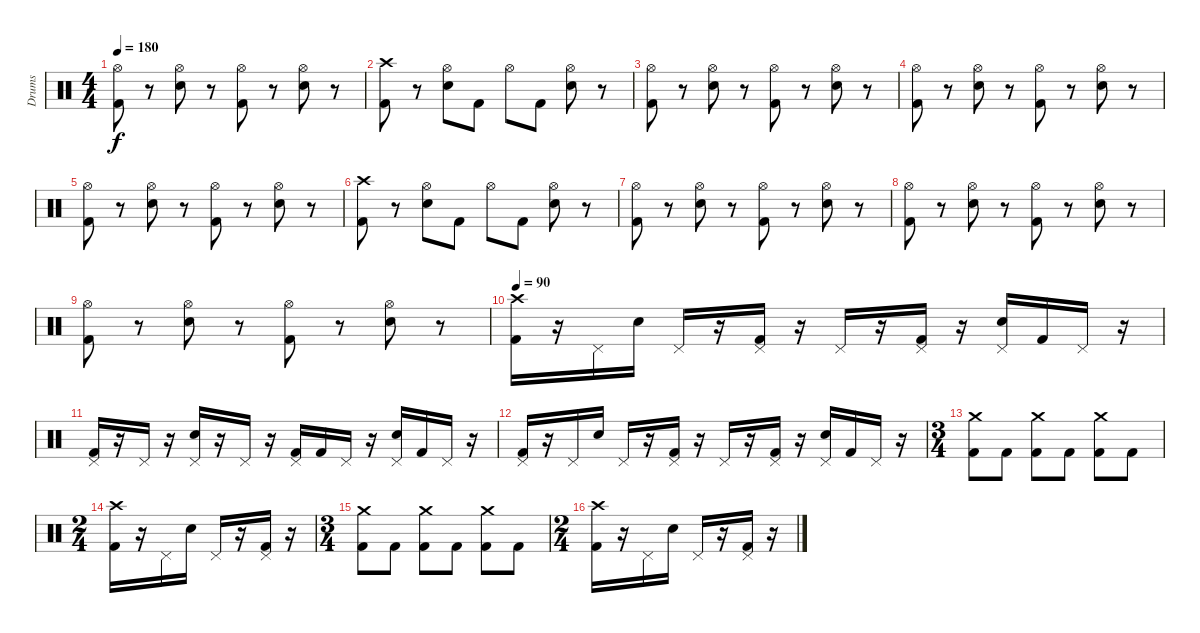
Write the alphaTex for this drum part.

\track ("Drums" "Drums") {instrument percussion}
\staff {score}
\articulation defaults
\ts (4 4)
\tempo 180
\clef neutral
\ks c
("Hi-Hat (open)" "Kick (hit) 2").8{dy f} r.8 ("Hi-Hat (open)" "Snare (hit) 2").8 r.8 ("Hi-Hat (open)" "Kick (hit) 2").8 r.8 ("Hi-Hat (open)" "Snare (hit) 2").8 r.8 |
("Crash high (hit)" "Kick (hit) 2").8 r.8 ("Hi-Hat (open)" "Snare (hit) 2").8 "Kick (hit) 2".8 "Hi-Hat (open)".8 "Kick (hit) 2".8 ("Hi-Hat (open)" "Snare (hit) 2").8 r.8 |
("Hi-Hat (open)" "Kick (hit) 2").8 r.8 ("Hi-Hat (open)" "Snare (hit) 2").8 r.8 ("Hi-Hat (open)" "Kick (hit) 2").8 r.8 ("Hi-Hat (open)" "Snare (hit) 2").8 r.8 |
("Hi-Hat (open)" "Kick (hit) 2").8 r.8 ("Hi-Hat (open)" "Snare (hit) 2").8 r.8 ("Hi-Hat (open)" "Kick (hit) 2").8 r.8 ("Hi-Hat (open)" "Snare (hit) 2").8 r.8 |
("Hi-Hat (open)" "Kick (hit) 2").8 r.8 ("Hi-Hat (open)" "Snare (hit) 2").8 r.8 ("Hi-Hat (open)" "Kick (hit) 2").8 r.8 ("Hi-Hat (open)" "Snare (hit) 2").8 r.8 |
("Crash high (hit)" "Kick (hit) 2").8 r.8 ("Hi-Hat (open)" "Snare (hit) 2").8 "Kick (hit) 2".8 "Hi-Hat (open)".8 "Kick (hit) 2".8 ("Hi-Hat (open)" "Snare (hit) 2").8 r.8 |
("Hi-Hat (open)" "Kick (hit) 2").8 r.8 ("Hi-Hat (open)" "Snare (hit) 2").8 r.8 ("Hi-Hat (open)" "Kick (hit) 2").8 r.8 ("Hi-Hat (open)" "Snare (hit) 2").8 r.8 |
("Hi-Hat (open)" "Kick (hit) 2").8 r.8 ("Hi-Hat (open)" "Snare (hit) 2").8 r.8 ("Hi-Hat (open)" "Kick (hit) 2").8 r.8 ("Hi-Hat (open)" "Snare (hit) 2").8 r.8 |
("Hi-Hat (open)" "Kick (hit) 2").8 r.8 ("Hi-Hat (open)" "Snare (hit) 2").8 r.8 ("Hi-Hat (open)" "Kick (hit) 2").8 r.8 ("Hi-Hat (open)" "Snare (hit) 2").8 r.8 |
\tempo 90
("Crash high (hit)" "Kick (hit) 2").16 r.16 "Pedal Hi-Hat (hit)".16 "Snare (hit) 2".16 "Pedal Hi-Hat (hit)".16 r.16 ("Pedal Hi-Hat (hit)" "Kick (hit) 2").16 r.16 "Pedal Hi-Hat (hit)".16 r.16 ("Pedal Hi-Hat (hit)" "Kick (hit) 2").16 r.16 ("Pedal Hi-Hat (hit)" "Snare (hit) 2").16 "Kick (hit) 2".16 "Pedal Hi-Hat (hit)".16 r.16 |
("Pedal Hi-Hat (hit)" "Kick (hit) 2").16 r.16 "Pedal Hi-Hat (hit)".16 r.16 ("Pedal Hi-Hat (hit)" "Snare (hit) 2").16 r.16 "Pedal Hi-Hat (hit)".16 r.16 ("Pedal Hi-Hat (hit)" "Kick (hit) 2").16 "Kick (hit) 2".16 "Pedal Hi-Hat (hit)".16 r.16 ("Pedal Hi-Hat (hit)" "Snare (hit) 2").16 "Kick (hit) 2".16 "Pedal Hi-Hat (hit)".16 r.16 |
("Pedal Hi-Hat (hit)" "Kick (hit) 2").16 r.16 "Pedal Hi-Hat (hit)".16 "Snare (hit) 2".16 "Pedal Hi-Hat (hit)".16 r.16 ("Pedal Hi-Hat (hit)" "Kick (hit) 2").16 r.16 "Pedal Hi-Hat (hit)".16 r.16 ("Pedal Hi-Hat (hit)" "Kick (hit) 2").16 r.16 ("Pedal Hi-Hat (hit)" "Snare (hit) 2").16 "Kick (hit) 2".16 "Pedal Hi-Hat (hit)".16 r.16 |
\ts (3 4)
("Crash medium (hit)" "Kick (hit) 2").8 "Kick (hit) 2".8 ("Crash medium (hit)" "Kick (hit) 2").8 "Kick (hit) 2".8 ("Crash medium (hit)" "Kick (hit) 2").8 "Kick (hit) 2".8 |
\ts (2 4)
("Crash high (hit)" "Kick (hit) 2").16 r.16 "Pedal Hi-Hat (hit)".16 "Snare (hit) 2".16 "Pedal Hi-Hat (hit)".16 r.16 ("Pedal Hi-Hat (hit)" "Kick (hit) 2").16 r.16 |
\ts (3 4)
("Crash medium (hit)" "Kick (hit) 2").8 "Kick (hit) 2".8 ("Crash medium (hit)" "Kick (hit) 2").8 "Kick (hit) 2".8 ("Crash medium (hit)" "Kick (hit) 2").8 "Kick (hit) 2".8 |
\ts (2 4)
("Crash high (hit)" "Kick (hit) 2").16 r.16 "Pedal Hi-Hat (hit)".16 "Snare (hit) 2".16 "Pedal Hi-Hat (hit)".16 r.16 ("Pedal Hi-Hat (hit)" "Kick (hit) 2").16 r.16
